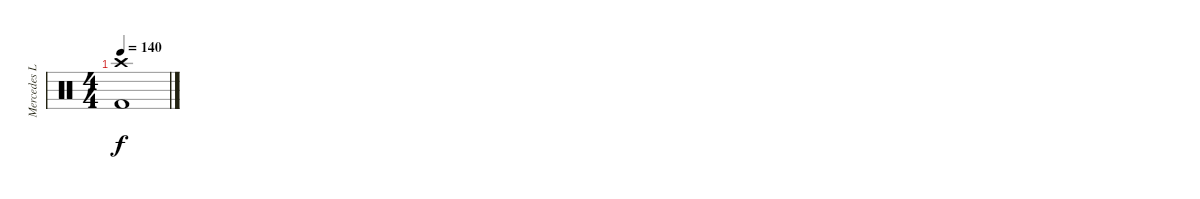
\track ("Mercedes Lander" "Mercedes L") {instrument percussion}
\staff {score}
\articulation defaults
\ts (4 4)
\tempo 140
\clef neutral
\ks c
("Crash high (hit)" "Kick (hit) 2").1{dy f}
